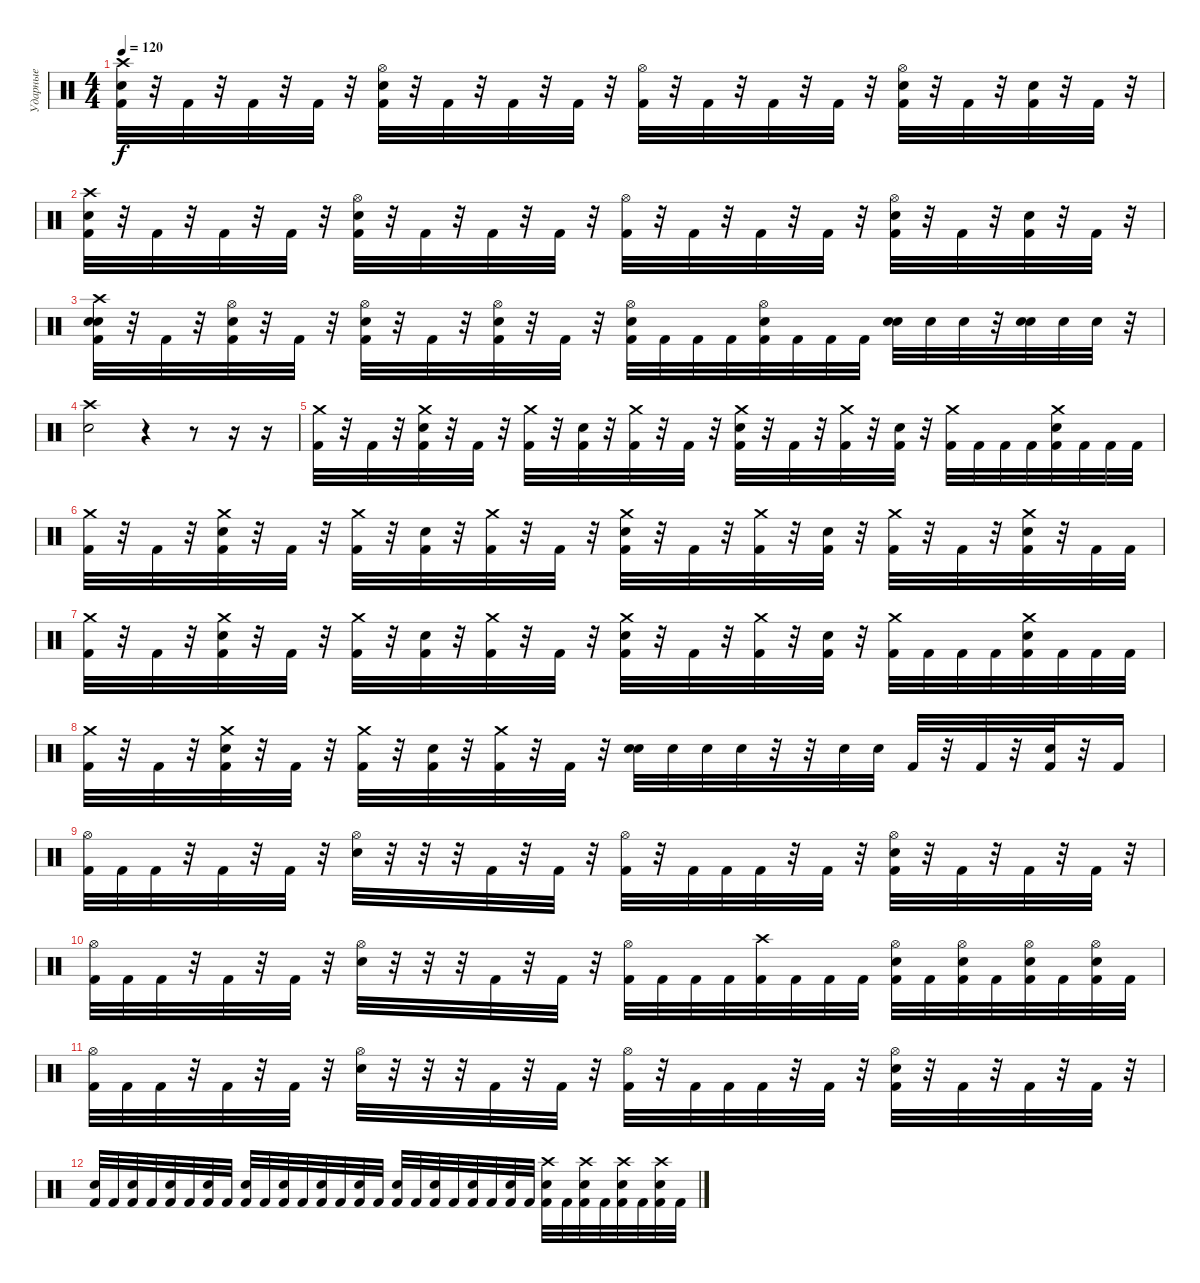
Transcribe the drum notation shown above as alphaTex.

\track ("Ударные" "Ударные") {instrument percussion}
\staff {score}
\articulation defaults
\ts (4 4)
\tempo 120
\clef neutral
\ks c
("Crash high (hit)" "Kick (hit) 2" "Snare (hit) 2").32{dy f} r.32 "Kick (hit) 2".32 r.32 "Kick (hit) 2".32 r.32 "Kick (hit) 2".32 r.32 ("Hi-Hat (open)" "Snare (hit) 2" "Kick (hit) 2").32 r.32 "Kick (hit) 2".32 r.32 "Kick (hit) 2".32 r.32 "Kick (hit) 2".32 r.32 ("Hi-Hat (open)" "Kick (hit) 2").32 r.32 "Kick (hit) 2".32 r.32 "Kick (hit) 2".32 r.32 "Kick (hit) 2".32 r.32 ("Hi-Hat (open)" "Snare (hit) 2" "Kick (hit) 2").32 r.32 "Kick (hit) 2".32 r.32 ("Snare (hit) 2" "Kick (hit) 2").32 r.32 "Kick (hit) 2".32 r.32 |
("Crash high (hit)" "Kick (hit) 2" "Snare (hit) 2").32 r.32 "Kick (hit) 2".32 r.32 "Kick (hit) 2".32 r.32 "Kick (hit) 2".32 r.32 ("Hi-Hat (open)" "Snare (hit) 2" "Kick (hit) 2").32 r.32 "Kick (hit) 2".32 r.32 "Kick (hit) 2".32 r.32 "Kick (hit) 2".32 r.32 ("Hi-Hat (open)" "Kick (hit) 2").32 r.32 "Kick (hit) 2".32 r.32 "Kick (hit) 2".32 r.32 "Kick (hit) 2".32 r.32 ("Hi-Hat (open)" "Snare (hit) 2" "Kick (hit) 2").32 r.32 "Kick (hit) 2".32 r.32 ("Snare (hit) 2" "Kick (hit) 2").32 r.32 "Kick (hit) 2".32 r.32 |
("Crash high (hit)" "Snare (hit) 2" "Kick (hit) 2" "Snare (hit) 2").32 r.32 "Kick (hit) 2".32 r.32 ("Hi-Hat (open)" "Snare (hit) 2" "Kick (hit) 2").32 r.32 "Kick (hit) 2".32 r.32 ("Hi-Hat (open)" "Snare (hit) 2" "Kick (hit) 2").32 r.32 "Kick (hit) 2".32 r.32 ("Hi-Hat (open)" "Snare (hit) 2" "Kick (hit) 2").32 r.32 "Kick (hit) 2".32 r.32 ("Hi-Hat (open)" "Snare (hit) 2" "Kick (hit) 2").32 "Kick (hit) 2".32 "Kick (hit) 2".32 "Kick (hit) 2".32 ("Hi-Hat (open)" "Snare (hit) 2" "Kick (hit) 2").32 "Kick (hit) 2".32 "Kick (hit) 2".32 "Kick (hit) 2".32 ("Snare (hit) 2" "Snare (hit) 2").32 "Snare (hit) 2".32 "Snare (hit) 2".32 r.32 ("Snare (hit) 2" "Snare (hit) 2").32 "Snare (hit) 2".32 "Snare (hit) 2".32 r.32 |
("Crash high (hit)" "Snare (hit) 2").2 r.4 r.8 r.16 r.16 |
("Crash medium (hit)" "Kick (hit) 2").32 r.32 "Kick (hit) 2".32 r.32 ("Crash medium (hit)" "Snare (hit) 2" "Kick (hit) 2").32 r.32 "Kick (hit) 2".32 r.32 ("Crash medium (hit)" "Kick (hit) 2").32 r.32 ("Snare (hit) 2" "Kick (hit) 2").32 r.32 ("Crash medium (hit)" "Kick (hit) 2").32 r.32 "Kick (hit) 2".32 r.32 ("Crash medium (hit)" "Snare (hit) 2" "Kick (hit) 2").32 r.32 "Kick (hit) 2".32 r.32 ("Crash medium (hit)" "Kick (hit) 2").32 r.32 ("Snare (hit) 2" "Kick (hit) 2").32 r.32 ("Crash medium (hit)" "Kick (hit) 2").32 "Kick (hit) 2".32 "Kick (hit) 2".32 "Kick (hit) 2".32 ("Crash medium (hit)" "Snare (hit) 2" "Kick (hit) 2").32 "Kick (hit) 2".32 "Kick (hit) 2".32 "Kick (hit) 2".32 |
("Crash medium (hit)" "Kick (hit) 2").32 r.32 "Kick (hit) 2".32 r.32 ("Crash medium (hit)" "Snare (hit) 2" "Kick (hit) 2").32 r.32 "Kick (hit) 2".32 r.32 ("Crash medium (hit)" "Kick (hit) 2").32 r.32 ("Snare (hit) 2" "Kick (hit) 2").32 r.32 ("Crash medium (hit)" "Kick (hit) 2").32 r.32 "Kick (hit) 2".32 r.32 ("Crash medium (hit)" "Snare (hit) 2" "Kick (hit) 2").32 r.32 "Kick (hit) 2".32 r.32 ("Crash medium (hit)" "Kick (hit) 2").32 r.32 ("Snare (hit) 2" "Kick (hit) 2").32 r.32 ("Crash medium (hit)" "Kick (hit) 2").32 r.32 "Kick (hit) 2".32 r.32 ("Crash medium (hit)" "Snare (hit) 2" "Kick (hit) 2").32 r.32 "Kick (hit) 2".32 "Kick (hit) 2".32 |
("Crash medium (hit)" "Kick (hit) 2").32 r.32 "Kick (hit) 2".32 r.32 ("Crash medium (hit)" "Snare (hit) 2" "Kick (hit) 2").32 r.32 "Kick (hit) 2".32 r.32 ("Crash medium (hit)" "Kick (hit) 2").32 r.32 ("Snare (hit) 2" "Kick (hit) 2").32 r.32 ("Crash medium (hit)" "Kick (hit) 2").32 r.32 "Kick (hit) 2".32 r.32 ("Crash medium (hit)" "Snare (hit) 2" "Kick (hit) 2").32 r.32 "Kick (hit) 2".32 r.32 ("Crash medium (hit)" "Kick (hit) 2").32 r.32 ("Snare (hit) 2" "Kick (hit) 2").32 r.32 ("Crash medium (hit)" "Kick (hit) 2").32 "Kick (hit) 2".32 "Kick (hit) 2".32 "Kick (hit) 2".32 ("Crash medium (hit)" "Snare (hit) 2" "Kick (hit) 2").32 "Kick (hit) 2".32 "Kick (hit) 2".32 "Kick (hit) 2".32 |
("Crash medium (hit)" "Kick (hit) 2").32 r.32 "Kick (hit) 2".32 r.32 ("Crash medium (hit)" "Snare (hit) 2" "Kick (hit) 2").32 r.32 "Kick (hit) 2".32 r.32 ("Crash medium (hit)" "Kick (hit) 2").32 r.32 ("Snare (hit) 2" "Kick (hit) 2").32 r.32 ("Crash medium (hit)" "Kick (hit) 2").32 r.32 "Kick (hit) 2".32 r.32 ("Snare (hit) 2" "Snare (hit) 2").32 "Snare (hit) 2".32 "Snare (hit) 2".32 "Snare (hit) 2".32 r.32 r.32 "Snare (hit) 2".32 "Snare (hit) 2".32 "Kick (hit) 2".32 r.32 "Kick (hit) 2".32 r.32 ("Snare (hit) 2" "Kick (hit) 2").32 r.32 "Kick (hit) 2".16 |
("Hi-Hat (open)" "Kick (hit) 2").32 "Kick (hit) 2".32 "Kick (hit) 2".32 r.32 "Kick (hit) 2".32 r.32 "Kick (hit) 2".32 r.32 ("Hi-Hat (open)" "Snare (hit) 2").32 r.32 r.32 r.32 "Kick (hit) 2".32 r.32 "Kick (hit) 2".32 r.32 ("Hi-Hat (open)" "Kick (hit) 2").32 r.32 "Kick (hit) 2".32 "Kick (hit) 2".32 "Kick (hit) 2".32 r.32 "Kick (hit) 2".32 r.32 ("Hi-Hat (open)" "Snare (hit) 2" "Kick (hit) 2").32 r.32 "Kick (hit) 2".32 r.32 "Kick (hit) 2".32 r.32 "Kick (hit) 2".32 r.32 |
("Hi-Hat (open)" "Kick (hit) 2").32 "Kick (hit) 2".32 "Kick (hit) 2".32 r.32 "Kick (hit) 2".32 r.32 "Kick (hit) 2".32 r.32 ("Hi-Hat (open)" "Snare (hit) 2").32 r.32 r.32 r.32 "Kick (hit) 2".32 r.32 "Kick (hit) 2".32 r.32 ("Hi-Hat (open)" "Kick (hit) 2").32 "Kick (hit) 2".32 "Kick (hit) 2".32 "Kick (hit) 2".32 ("Crash high (hit)" "Kick (hit) 2").32 "Kick (hit) 2".32 "Kick (hit) 2".32 "Kick (hit) 2".32 ("Hi-Hat (open)" "Snare (hit) 2" "Kick (hit) 2").32 "Kick (hit) 2".32 ("Hi-Hat (open)" "Snare (hit) 2" "Kick (hit) 2").32 "Kick (hit) 2".32 ("Hi-Hat (open)" "Snare (hit) 2" "Kick (hit) 2").32 "Kick (hit) 2".32 ("Hi-Hat (open)" "Snare (hit) 2" "Kick (hit) 2").32 "Kick (hit) 2".32 |
("Hi-Hat (open)" "Kick (hit) 2").32 "Kick (hit) 2".32 "Kick (hit) 2".32 r.32 "Kick (hit) 2".32 r.32 "Kick (hit) 2".32 r.32 ("Hi-Hat (open)" "Snare (hit) 2").32 r.32 r.32 r.32 "Kick (hit) 2".32 r.32 "Kick (hit) 2".32 r.32 ("Hi-Hat (open)" "Kick (hit) 2").32 r.32 "Kick (hit) 2".32 "Kick (hit) 2".32 "Kick (hit) 2".32 r.32 "Kick (hit) 2".32 r.32 ("Hi-Hat (open)" "Snare (hit) 2" "Kick (hit) 2").32 r.32 "Kick (hit) 2".32 r.32 "Kick (hit) 2".32 r.32 "Kick (hit) 2".32 r.32 |
("Snare (hit) 2" "Kick (hit) 2").32 "Kick (hit) 2".32 ("Snare (hit) 2" "Kick (hit) 2").32 "Kick (hit) 2".32 ("Snare (hit) 2" "Kick (hit) 2").32 "Kick (hit) 2".32 ("Snare (hit) 2" "Kick (hit) 2").32 "Kick (hit) 2".32 ("Snare (hit) 2" "Kick (hit) 2").32 "Kick (hit) 2".32 ("Snare (hit) 2" "Kick (hit) 2").32 "Kick (hit) 2".32 ("Snare (hit) 2" "Kick (hit) 2").32 "Kick (hit) 2".32 ("Snare (hit) 2" "Kick (hit) 2").32 "Kick (hit) 2".32 ("Snare (hit) 2" "Kick (hit) 2").32 "Kick (hit) 2".32 ("Snare (hit) 2" "Kick (hit) 2").32 "Kick (hit) 2".32 ("Snare (hit) 2" "Kick (hit) 2").32 "Kick (hit) 2".32 ("Snare (hit) 2" "Kick (hit) 2").32 "Kick (hit) 2".32 ("Crash high (hit)" "Snare (hit) 2" "Kick (hit) 2").32 "Kick (hit) 2".32 ("Crash high (hit)" "Snare (hit) 2" "Kick (hit) 2").32 "Kick (hit) 2".32 ("Crash high (hit)" "Snare (hit) 2" "Kick (hit) 2").32 "Kick (hit) 2".32 ("Crash high (hit)" "Snare (hit) 2" "Kick (hit) 2").32 "Kick (hit) 2".32
